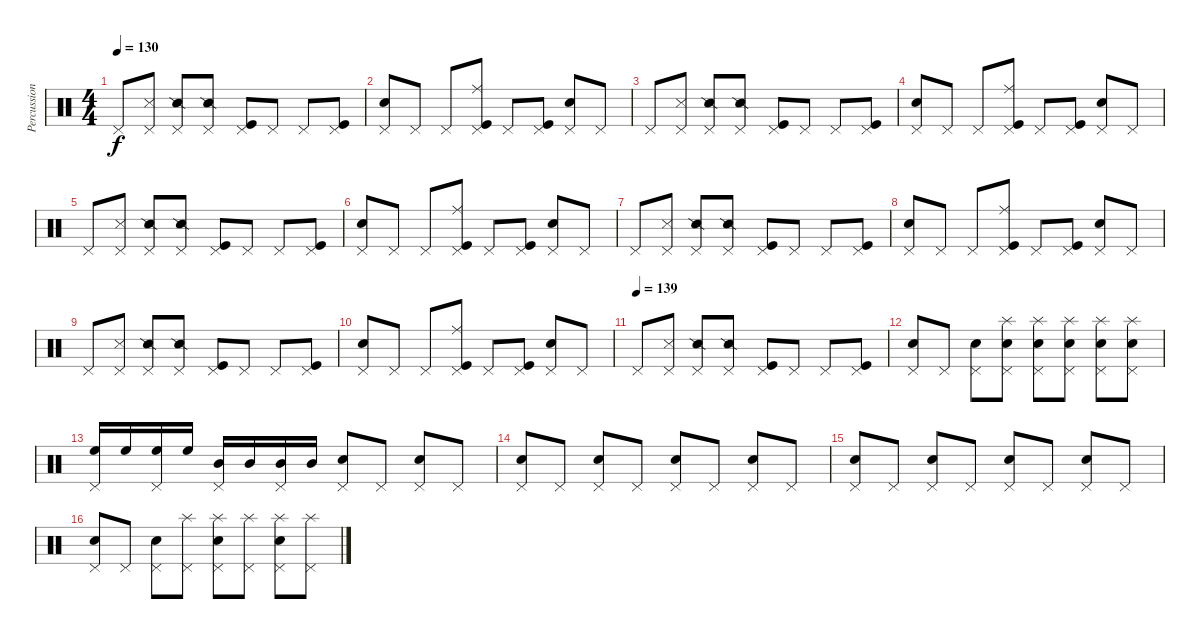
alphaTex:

\track ("Percussion" "Percussion") {instrument percussion}
\staff {score}
\articulation defaults
\ts (4 4)
\tempo 130
\clef neutral
\ks c "Pedal Hi-Hat (hit)".8{dy f}
("Snare (side stick) 3" "Pedal Hi-Hat (hit)").8 ("Snare (side stick) 2" "Pedal Hi-Hat (hit)").8 ("Snare (side stick) 2" "Pedal Hi-Hat (hit)").8 ("Kick (hit)" "Pedal Hi-Hat (hit)").8 "Pedal Hi-Hat (hit)".8 "Pedal Hi-Hat (hit)".8 ("Kick (hit)" "Pedal Hi-Hat (hit)").8 |
("Electric Snare (hit)" "Pedal Hi-Hat (hit)").8 "Pedal Hi-Hat (hit)".8 "Pedal Hi-Hat (hit)".8 ("Ride (middle)" "Kick (hit)" "Pedal Hi-Hat (hit)").8 "Pedal Hi-Hat (hit)".8 ("Kick (hit)" "Pedal Hi-Hat (hit)").8 ("Electric Snare (hit)" "Pedal Hi-Hat (hit)").8 "Pedal Hi-Hat (hit)".8 |
"Pedal Hi-Hat (hit)".8 ("Snare (side stick) 3" "Pedal Hi-Hat (hit)").8 ("Snare (side stick) 2" "Pedal Hi-Hat (hit)").8 ("Snare (side stick) 2" "Pedal Hi-Hat (hit)").8 ("Kick (hit)" "Pedal Hi-Hat (hit)").8 "Pedal Hi-Hat (hit)".8 "Pedal Hi-Hat (hit)".8 ("Kick (hit)" "Pedal Hi-Hat (hit)").8 |
("Electric Snare (hit)" "Pedal Hi-Hat (hit)").8 "Pedal Hi-Hat (hit)".8 "Pedal Hi-Hat (hit)".8 ("Ride (middle)" "Kick (hit)" "Pedal Hi-Hat (hit)").8 "Pedal Hi-Hat (hit)".8 ("Kick (hit)" "Pedal Hi-Hat (hit)").8 ("Electric Snare (hit)" "Pedal Hi-Hat (hit)").8 "Pedal Hi-Hat (hit)".8 |
"Pedal Hi-Hat (hit)".8 ("Snare (side stick) 3" "Pedal Hi-Hat (hit)").8 ("Snare (side stick) 2" "Pedal Hi-Hat (hit)").8 ("Snare (side stick) 2" "Pedal Hi-Hat (hit)").8 ("Kick (hit)" "Pedal Hi-Hat (hit)").8 "Pedal Hi-Hat (hit)".8 "Pedal Hi-Hat (hit)".8 ("Kick (hit)" "Pedal Hi-Hat (hit)").8 |
("Electric Snare (hit)" "Pedal Hi-Hat (hit)").8 "Pedal Hi-Hat (hit)".8 "Pedal Hi-Hat (hit)".8 ("Ride (middle)" "Kick (hit)" "Pedal Hi-Hat (hit)").8 "Pedal Hi-Hat (hit)".8 ("Kick (hit)" "Pedal Hi-Hat (hit)").8 ("Electric Snare (hit)" "Pedal Hi-Hat (hit)").8 "Pedal Hi-Hat (hit)".8 |
"Pedal Hi-Hat (hit)".8 ("Snare (side stick) 3" "Pedal Hi-Hat (hit)").8 ("Snare (side stick) 2" "Pedal Hi-Hat (hit)").8 ("Snare (side stick) 2" "Pedal Hi-Hat (hit)").8 ("Kick (hit)" "Pedal Hi-Hat (hit)").8 "Pedal Hi-Hat (hit)".8 "Pedal Hi-Hat (hit)".8 ("Kick (hit)" "Pedal Hi-Hat (hit)").8 |
("Electric Snare (hit)" "Pedal Hi-Hat (hit)").8 "Pedal Hi-Hat (hit)".8 "Pedal Hi-Hat (hit)".8 ("Ride (middle)" "Kick (hit)" "Pedal Hi-Hat (hit)").8 "Pedal Hi-Hat (hit)".8 ("Kick (hit)" "Pedal Hi-Hat (hit)").8 ("Electric Snare (hit)" "Pedal Hi-Hat (hit)").8 "Pedal Hi-Hat (hit)".8 |
"Pedal Hi-Hat (hit)".8 ("Snare (side stick) 3" "Pedal Hi-Hat (hit)").8 ("Snare (side stick) 2" "Pedal Hi-Hat (hit)").8 ("Snare (side stick) 2" "Pedal Hi-Hat (hit)").8 ("Kick (hit)" "Pedal Hi-Hat (hit)").8 "Pedal Hi-Hat (hit)".8 "Pedal Hi-Hat (hit)".8 ("Kick (hit)" "Pedal Hi-Hat (hit)").8 |
("Electric Snare (hit)" "Pedal Hi-Hat (hit)").8 "Pedal Hi-Hat (hit)".8 "Pedal Hi-Hat (hit)".8 ("Ride (middle)" "Kick (hit)" "Pedal Hi-Hat (hit)").8 "Pedal Hi-Hat (hit)".8 ("Kick (hit)" "Pedal Hi-Hat (hit)").8 ("Electric Snare (hit)" "Pedal Hi-Hat (hit)").8 "Pedal Hi-Hat (hit)".8 |
\tempo (139)
"Pedal Hi-Hat (hit)".8 ("Snare (side stick) 3" "Pedal Hi-Hat (hit)").8 ("Snare (side stick) 2" "Pedal Hi-Hat (hit)").8 ("Snare (side stick) 2" "Pedal Hi-Hat (hit)").8 ("Kick (hit)" "Pedal Hi-Hat (hit)").8 "Pedal Hi-Hat (hit)".8 "Pedal Hi-Hat (hit)".8 ("Kick (hit)" "Pedal Hi-Hat (hit)").8 |
("Electric Snare (hit)" "Pedal Hi-Hat (hit)").8 "Pedal Hi-Hat (hit)".8 ("Electric Snare (hit)" "Pedal Hi-Hat (hit)").8 ("Splash (hit)" "Electric Snare (hit)" "Pedal Hi-Hat (hit)").8 ("Splash (hit)" "Electric Snare (hit)" "Pedal Hi-Hat (hit)").8 ("Splash (hit)" "Electric Snare (hit)" "Pedal Hi-Hat (hit)").8 ("Splash (hit)" "Electric Snare (hit)" "Pedal Hi-Hat (hit)").8 ("Splash (hit)" "Electric Snare (hit)" "Pedal Hi-Hat (hit)").8 |
("High Floor Tom (hit)" "Pedal Hi-Hat (hit)").16 "High Floor Tom (hit)".16 ("High Floor Tom (hit)" "Pedal Hi-Hat (hit)").16 "High Floor Tom (hit)".16 ("Mid Tom (hit)" "Pedal Hi-Hat (hit)").16 "Mid Tom (hit)".16 ("Mid Tom (hit)" "Pedal Hi-Hat (hit)").16 "Mid Tom (hit)".16 ("Electric Snare (hit)" "Pedal Hi-Hat (hit)").8 "Pedal Hi-Hat (hit)".8 ("Electric Snare (hit)" "Pedal Hi-Hat (hit)").8 "Pedal Hi-Hat (hit)".8 |
("Electric Snare (hit)" "Pedal Hi-Hat (hit)").8 "Pedal Hi-Hat (hit)".8 ("Electric Snare (hit)" "Pedal Hi-Hat (hit)").8 "Pedal Hi-Hat (hit)".8 ("Electric Snare (hit)" "Pedal Hi-Hat (hit)").8 "Pedal Hi-Hat (hit)".8 ("Electric Snare (hit)" "Pedal Hi-Hat (hit)").8 "Pedal Hi-Hat (hit)".8 |
("Electric Snare (hit)" "Pedal Hi-Hat (hit)").8 "Pedal Hi-Hat (hit)".8 ("Electric Snare (hit)" "Pedal Hi-Hat (hit)").8 "Pedal Hi-Hat (hit)".8 ("Electric Snare (hit)" "Pedal Hi-Hat (hit)").8 "Pedal Hi-Hat (hit)".8 ("Electric Snare (hit)" "Pedal Hi-Hat (hit)").8 "Pedal Hi-Hat (hit)".8 |
("Electric Snare (hit)" "Pedal Hi-Hat (hit)").8 "Pedal Hi-Hat (hit)".8 ("Electric Snare (hit)" "Pedal Hi-Hat (hit)").8 ("Splash (hit)" "Pedal Hi-Hat (hit)").8 ("Splash (hit)" "Electric Snare (hit)" "Pedal Hi-Hat (hit)").8 ("Splash (hit)" "Pedal Hi-Hat (hit)").8 ("Splash (hit)" "Electric Snare (hit)" "Pedal Hi-Hat (hit)").8 ("Splash (hit)" "Pedal Hi-Hat (hit)").8
